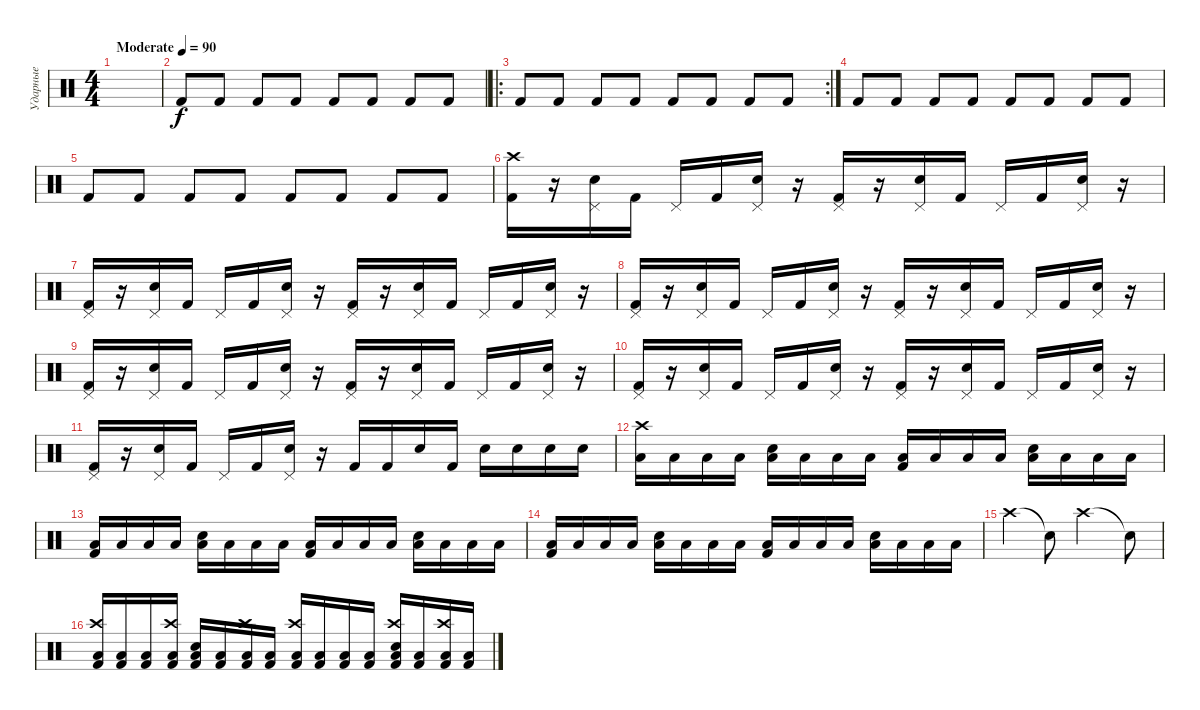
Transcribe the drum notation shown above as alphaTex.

\track ("Ударные" "Ударные") {instrument percussion}
\staff {score}
\articulation defaults
\ts (4 4)
\tempo (90 "Moderate")
\clef neutral
\ks c
|
"Kick (hit) 2".8 "Kick (hit) 2".8 "Kick (hit) 2".8 "Kick (hit) 2".8 "Kick (hit) 2".8 "Kick (hit) 2".8 "Kick (hit) 2".8 "Kick (hit) 2".8 |
\ro
\rc 2 "Kick (hit) 2".8 "Kick (hit) 2".8 "Kick (hit) 2".8 "Kick (hit) 2".8 "Kick (hit) 2".8 "Kick (hit) 2".8 "Kick (hit) 2".8 "Kick (hit) 2".8
|
"Kick (hit) 2".8 "Kick (hit) 2".8 "Kick (hit) 2".8 "Kick (hit) 2".8 "Kick (hit) 2".8 "Kick (hit) 2".8 "Kick (hit) 2".8 "Kick (hit) 2".8 |
"Kick (hit) 2".8 "Kick (hit) 2".8 "Kick (hit) 2".8 "Kick (hit) 2".8 "Kick (hit) 2".8 "Kick (hit) 2".8 "Kick (hit) 2".8 "Kick (hit) 2".8 |
("Crash high (hit)" "Kick (hit) 2").16 r.16 ("Pedal Hi-Hat (hit)" "Snare (hit) 2").16 "Kick (hit) 2".16 "Pedal Hi-Hat (hit)".16 "Kick (hit) 2".16 ("Pedal Hi-Hat (hit)" "Snare (hit) 2").16 r.16 ("Pedal Hi-Hat (hit)" "Kick (hit) 2").16 r.16 ("Pedal Hi-Hat (hit)" "Snare (hit) 2").16 "Kick (hit) 2".16 "Pedal Hi-Hat (hit)".16 "Kick (hit) 2".16 ("Pedal Hi-Hat (hit)" "Snare (hit) 2").16 r.16 |
("Pedal Hi-Hat (hit)" "Kick (hit) 2").16 r.16 ("Pedal Hi-Hat (hit)" "Snare (hit) 2").16 "Kick (hit) 2".16 "Pedal Hi-Hat (hit)".16 "Kick (hit) 2".16 ("Pedal Hi-Hat (hit)" "Snare (hit) 2").16 r.16 ("Pedal Hi-Hat (hit)" "Kick (hit) 2").16 r.16 ("Pedal Hi-Hat (hit)" "Snare (hit) 2").16 "Kick (hit) 2".16 "Pedal Hi-Hat (hit)".16 "Kick (hit) 2".16 ("Pedal Hi-Hat (hit)" "Snare (hit) 2").16 r.16 |
("Pedal Hi-Hat (hit)" "Kick (hit) 2").16 r.16 ("Pedal Hi-Hat (hit)" "Snare (hit) 2").16 "Kick (hit) 2".16 "Pedal Hi-Hat (hit)".16 "Kick (hit) 2".16 ("Pedal Hi-Hat (hit)" "Snare (hit) 2").16 r.16 ("Pedal Hi-Hat (hit)" "Kick (hit) 2").16 r.16 ("Pedal Hi-Hat (hit)" "Snare (hit) 2").16 "Kick (hit) 2".16 "Pedal Hi-Hat (hit)".16 "Kick (hit) 2".16 ("Pedal Hi-Hat (hit)" "Snare (hit) 2").16 r.16 |
("Pedal Hi-Hat (hit)" "Kick (hit) 2").16 r.16 ("Pedal Hi-Hat (hit)" "Snare (hit) 2").16 "Kick (hit) 2".16 "Pedal Hi-Hat (hit)".16 "Kick (hit) 2".16 ("Pedal Hi-Hat (hit)" "Snare (hit) 2").16 r.16 ("Pedal Hi-Hat (hit)" "Kick (hit) 2").16 r.16 ("Pedal Hi-Hat (hit)" "Snare (hit) 2").16 "Kick (hit) 2".16 "Pedal Hi-Hat (hit)".16 "Kick (hit) 2".16 ("Pedal Hi-Hat (hit)" "Snare (hit) 2").16 r.16 |
("Pedal Hi-Hat (hit)" "Kick (hit) 2").16 r.16 ("Pedal Hi-Hat (hit)" "Snare (hit) 2").16 "Kick (hit) 2".16 "Pedal Hi-Hat (hit)".16 "Kick (hit) 2".16 ("Pedal Hi-Hat (hit)" "Snare (hit) 2").16 r.16 ("Pedal Hi-Hat (hit)" "Kick (hit) 2").16 r.16 ("Pedal Hi-Hat (hit)" "Snare (hit) 2").16 "Kick (hit) 2".16 "Pedal Hi-Hat (hit)".16 "Kick (hit) 2".16 ("Pedal Hi-Hat (hit)" "Snare (hit) 2").16 r.16 |
("Pedal Hi-Hat (hit)" "Kick (hit) 2").16 r.16 ("Pedal Hi-Hat (hit)" "Snare (hit) 2").16 "Kick (hit) 2".16 "Pedal Hi-Hat (hit)".16 "Kick (hit) 2".16 ("Pedal Hi-Hat (hit)" "Snare (hit) 2").16 r.16 "Kick (hit) 2".16 "Kick (hit) 2".16 "Snare (hit) 2".16 "Kick (hit) 2".16 "Snare (hit) 2".16 "Snare (hit) 2".16 "Snare (hit) 2".16 "Snare (hit) 2".16 |
("Low Floor Tom (hit)" "Crash high (hit)").16 "Low Floor Tom (hit)".16 "Low Floor Tom (hit)".16 "Low Floor Tom (hit)".16 ("Low Floor Tom (hit)" "Snare (hit) 2").16 "Low Floor Tom (hit)".16 "Low Floor Tom (hit)".16 "Low Floor Tom (hit)".16 ("Low Floor Tom (hit)" "Kick (hit) 2").16 "Low Floor Tom (hit)".16 "Low Floor Tom (hit)".16 "Low Floor Tom (hit)".16 ("Low Floor Tom (hit)" "Snare (hit) 2").16 "Low Floor Tom (hit)".16 "Low Floor Tom (hit)".16 "Low Floor Tom (hit)".16 |
("Low Floor Tom (hit)" "Kick (hit) 2").16 "Low Floor Tom (hit)".16 "Low Floor Tom (hit)".16 "Low Floor Tom (hit)".16 ("Low Floor Tom (hit)" "Snare (hit) 2").16 "Low Floor Tom (hit)".16 "Low Floor Tom (hit)".16 "Low Floor Tom (hit)".16 ("Low Floor Tom (hit)" "Kick (hit) 2").16 "Low Floor Tom (hit)".16 "Low Floor Tom (hit)".16 "Low Floor Tom (hit)".16 ("Low Floor Tom (hit)" "Snare (hit) 2").16 "Low Floor Tom (hit)".16 "Low Floor Tom (hit)".16 "Low Floor Tom (hit)".16 |
("Low Floor Tom (hit)" "Kick (hit) 2").16 "Low Floor Tom (hit)".16 "Low Floor Tom (hit)".16 "Low Floor Tom (hit)".16 ("Low Floor Tom (hit)" "Snare (hit) 2").16 "Low Floor Tom (hit)".16 "Low Floor Tom (hit)".16 "Low Floor Tom (hit)".16 ("Low Floor Tom (hit)" "Kick (hit) 2").16 "Low Floor Tom (hit)".16 "Low Floor Tom (hit)".16 "Low Floor Tom (hit)".16 ("Low Floor Tom (hit)" "Snare (hit) 2").16 "Low Floor Tom (hit)".16 "Low Floor Tom (hit)".16 "Low Floor Tom (hit)".16 |
"Crash high (hit)".4 "Snare (hit)"{t}.8 "Crash high (hit)".2 "Snare (hit)"{t}.8 |
("Low Floor Tom (hit)" "Kick (hit) 2" "Crash high (hit)").16 ("Low Floor Tom (hit)" "Kick (hit) 2").16 ("Low Floor Tom (hit)" "Kick (hit) 2").16 ("Low Floor Tom (hit)" "Kick (hit) 2" "Crash high (hit)").16 ("Low Floor Tom (hit)" "Kick (hit) 2" "Snare (hit) 2").16 ("Low Floor Tom (hit)" "Kick (hit) 2").16 ("Low Floor Tom (hit)" "Kick (hit) 2" "Crash high (hit)").16 ("Low Floor Tom (hit)" "Kick (hit) 2").16 ("Low Floor Tom (hit)" "Kick (hit) 2" "Crash high (hit)").16 ("Low Floor Tom (hit)" "Kick (hit) 2").16 ("Low Floor Tom (hit)" "Kick (hit) 2").16 ("Low Floor Tom (hit)" "Kick (hit) 2").16 ("Low Floor Tom (hit)" "Kick (hit) 2" "Snare (hit) 2" "Crash high (hit)").16 ("Low Floor Tom (hit)" "Kick (hit) 2").16 ("Low Floor Tom (hit)" "Kick (hit) 2" "Crash high (hit)").16 ("Low Floor Tom (hit)" "Kick (hit) 2").16
